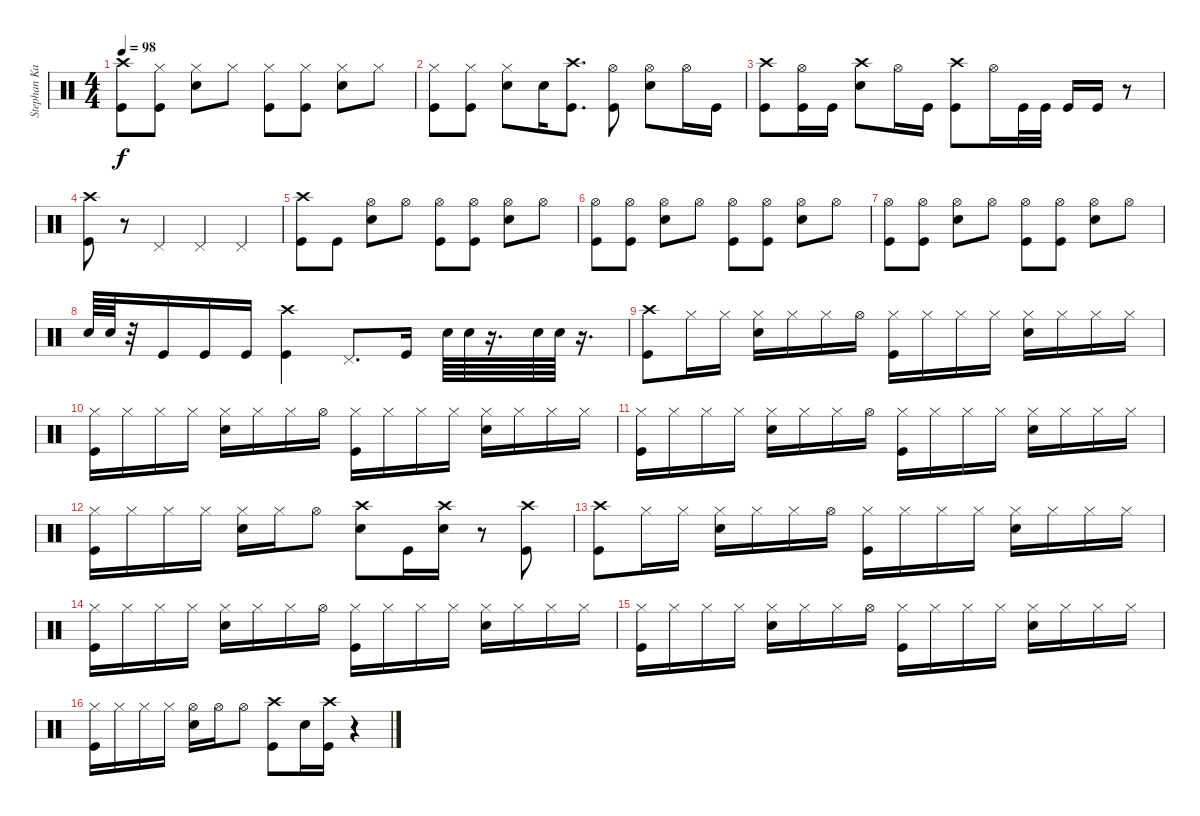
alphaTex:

\track ("Stephan Kaufmann" "Stephan Ka") {instrument percussion}
\staff {score}
\articulation defaults
\ts (4 4)
\tempo 98
\clef neutral
\ks c
("Crash high (hit)" "Kick (hit)").8{dy f} ("Hi-Hat (closed)" "Kick (hit)").8 ("Hi-Hat (closed)" "Snare (hit) 2").8 "Hi-Hat (closed)".8 ("Hi-Hat (closed)" "Kick (hit)").8 ("Hi-Hat (closed)" "Kick (hit)").8 ("Hi-Hat (closed)" "Snare (hit) 2").8 "Hi-Hat (closed)".8 |
("Hi-Hat (closed)" "Kick (hit)").8 ("Hi-Hat (closed)" "Kick (hit)").8 ("Hi-Hat (closed)" "Snare (hit) 2").8 "Snare (hit) 2".16 ("Crash high (hit)" "Kick (hit)").8{d} ("Hi-Hat (open)" "Kick (hit)").8 ("Hi-Hat (open)" "Snare (hit) 2").8 "Hi-Hat (open)".16 "Kick (hit)".16 |
("Crash high (hit)" "Kick (hit)").8 ("Hi-Hat (open)" "Kick (hit)").16 "Kick (hit)".16 ("Crash high (hit)" "Snare (hit) 2").8 "Hi-Hat (open)".16 "Kick (hit)".16 ("Crash high (hit)" "Kick (hit)").8 "Hi-Hat (open)".16 "Kick (hit)".32 "Kick (hit)".32 "Kick (hit)".16 "Kick (hit)".16 r.8 |
("Crash high (hit)" "Kick (hit)").8 r.8 "Pedal Hi-Hat (hit)".4 "Pedal Hi-Hat (hit)".4 "Pedal Hi-Hat (hit)".4 |
("Crash high (hit)" "Kick (hit)").8 "Kick (hit)".8 ("Hi-Hat (open)" "Snare (hit) 2").8 "Hi-Hat (open)".8 ("Hi-Hat (open)" "Kick (hit)").8 ("Hi-Hat (open)" "Kick (hit)").8 ("Hi-Hat (open)" "Snare (hit) 2").8 "Hi-Hat (open)".8 |
("Hi-Hat (open)" "Kick (hit)").8 ("Hi-Hat (open)" "Kick (hit)").8 ("Hi-Hat (open)" "Snare (hit) 2").8 "Hi-Hat (open)".8 ("Hi-Hat (open)" "Kick (hit)").8 ("Hi-Hat (open)" "Kick (hit)").8 ("Hi-Hat (open)" "Snare (hit) 2").8 "Hi-Hat (open)".8 |
("Hi-Hat (open)" "Kick (hit)").8 ("Hi-Hat (open)" "Kick (hit)").8 ("Hi-Hat (open)" "Snare (hit) 2").8 "Hi-Hat (open)".8 ("Hi-Hat (open)" "Kick (hit)").8 ("Hi-Hat (open)" "Kick (hit)").8 ("Hi-Hat (open)" "Snare (hit) 2").8 "Hi-Hat (open)".8 |
"Snare (hit) 2".64 "Snare (hit) 2".64 r.32 "Kick (hit)".16 "Kick (hit)".16 "Kick (hit)".16 ("Crash high (hit)" "Kick (hit)").4 "Pedal Hi-Hat (hit)".8{d} "Kick (hit)".16 "Snare (hit) 2".64 "Snare (hit) 2".64 r.16{d} "Snare (hit) 2".64 "Snare (hit) 2".64 r.16{d} |
("Crash high (hit)" "Kick (hit)").8 "Hi-Hat (closed)".16 "Hi-Hat (closed)".16 ("Hi-Hat (closed)" "Snare (hit) 2").16 "Hi-Hat (closed)".16 "Hi-Hat (closed)".16 "Hi-Hat (open)".16 ("Hi-Hat (closed)" "Kick (hit)").16 "Hi-Hat (closed)".16 "Hi-Hat (closed)".16 "Hi-Hat (closed)".16 ("Hi-Hat (closed)" "Snare (hit) 2").16 "Hi-Hat (closed)".16 "Hi-Hat (closed)".16 "Hi-Hat (closed)".16 |
("Hi-Hat (closed)" "Kick (hit)").16 "Hi-Hat (closed)".16 "Hi-Hat (closed)".16 "Hi-Hat (closed)".16 ("Hi-Hat (closed)" "Snare (hit) 2").16 "Hi-Hat (closed)".16 "Hi-Hat (closed)".16 "Hi-Hat (open)".16 ("Hi-Hat (closed)" "Kick (hit)").16 "Hi-Hat (closed)".16 "Hi-Hat (closed)".16 "Hi-Hat (closed)".16 ("Hi-Hat (closed)" "Snare (hit) 2").16 "Hi-Hat (closed)".16 "Hi-Hat (closed)".16 "Hi-Hat (closed)".16 |
("Hi-Hat (closed)" "Kick (hit)").16 "Hi-Hat (closed)".16 "Hi-Hat (closed)".16 "Hi-Hat (closed)".16 ("Hi-Hat (closed)" "Snare (hit) 2").16 "Hi-Hat (closed)".16 "Hi-Hat (closed)".16 "Hi-Hat (open)".16 ("Hi-Hat (closed)" "Kick (hit)").16 "Hi-Hat (closed)".16 "Hi-Hat (closed)".16 "Hi-Hat (closed)".16 ("Hi-Hat (closed)" "Snare (hit) 2").16 "Hi-Hat (closed)".16 "Hi-Hat (closed)".16 "Hi-Hat (closed)".16 |
("Hi-Hat (closed)" "Kick (hit)").16 "Hi-Hat (closed)".16 "Hi-Hat (closed)".16 "Hi-Hat (closed)".16 ("Hi-Hat (closed)" "Snare (hit) 2").16 "Hi-Hat (closed)".16 "Hi-Hat (open)".8 ("Crash high (hit)" "Snare (hit) 2").8 "Kick (hit)".16 ("Crash high (hit)" "Snare (hit) 2").16 r.8 ("Crash high (hit)" "Kick (hit)").8 |
("Crash high (hit)" "Kick (hit)").8 "Hi-Hat (closed)".16 "Hi-Hat (closed)".16 ("Hi-Hat (closed)" "Snare (hit) 2").16 "Hi-Hat (closed)".16 "Hi-Hat (closed)".16 "Hi-Hat (open)".16 ("Hi-Hat (closed)" "Kick (hit)").16 "Hi-Hat (closed)".16 "Hi-Hat (closed)".16 "Hi-Hat (closed)".16 ("Hi-Hat (closed)" "Snare (hit) 2").16 "Hi-Hat (closed)".16 "Hi-Hat (closed)".16 "Hi-Hat (closed)".16 |
("Hi-Hat (closed)" "Kick (hit)").16 "Hi-Hat (closed)".16 "Hi-Hat (closed)".16 "Hi-Hat (closed)".16 ("Hi-Hat (closed)" "Snare (hit) 2").16 "Hi-Hat (closed)".16 "Hi-Hat (closed)".16 "Hi-Hat (open)".16 ("Hi-Hat (closed)" "Kick (hit)").16 "Hi-Hat (closed)".16 "Hi-Hat (closed)".16 "Hi-Hat (closed)".16 ("Hi-Hat (closed)" "Snare (hit) 2").16 "Hi-Hat (closed)".16 "Hi-Hat (closed)".16 "Hi-Hat (closed)".16 |
("Hi-Hat (closed)" "Kick (hit)").16 "Hi-Hat (closed)".16 "Hi-Hat (closed)".16 "Hi-Hat (closed)".16 ("Hi-Hat (closed)" "Snare (hit) 2").16 "Hi-Hat (closed)".16 "Hi-Hat (closed)".16 "Hi-Hat (open)".16 ("Hi-Hat (closed)" "Kick (hit)").16 "Hi-Hat (closed)".16 "Hi-Hat (closed)".16 "Hi-Hat (closed)".16 ("Hi-Hat (closed)" "Snare (hit) 2").16 "Hi-Hat (closed)".16 "Hi-Hat (closed)".16 "Hi-Hat (closed)".16 |
("Hi-Hat (closed)" "Kick (hit)").16 "Hi-Hat (closed)".16 "Hi-Hat (closed)".16 "Hi-Hat (closed)".16 ("Hi-Hat (open)" "Snare (hit) 2").16 "Hi-Hat (open)".16 "Hi-Hat (open)".8 ("Crash high (hit)" "Kick (hit)").8 "Snare (hit) 2".16 ("Crash high (hit)" "Kick (hit)").16 r.4
